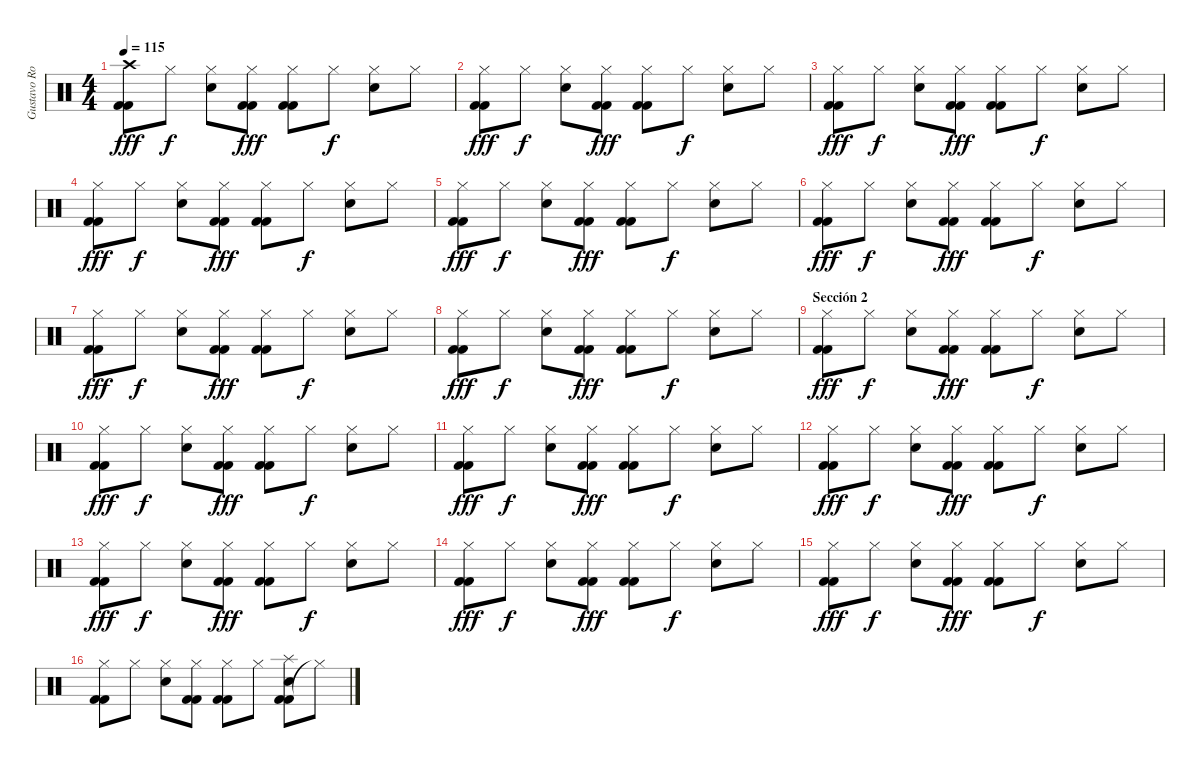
\track ("Gustavo Rowek" "Gustavo Ro") {instrument percussion}
\staff {score}
\articulation defaults
\ts (4 4)
\section ("" "")
\tempo 115
\clef neutral
\ks c
("Kick (hit) 2" "Kick (hit) 2" "Crash high (hit)").8{dy fff} "Hi-Hat (closed)".8{dy f} ("Snare (hit) 2" "Hi-Hat (closed)").8 ("Kick (hit) 2" "Kick (hit) 2" "Hi-Hat (closed)").8{dy fff} ("Kick (hit) 2" "Kick (hit) 2" "Hi-Hat (closed)").8 "Hi-Hat (closed)".8{dy f} ("Snare (hit) 2" "Hi-Hat (closed)").8 "Hi-Hat (closed)".8 |
("Kick (hit) 2" "Kick (hit) 2" "Hi-Hat (closed)").8{dy fff} "Hi-Hat (closed)".8{dy f} ("Snare (hit) 2" "Hi-Hat (closed)").8 ("Kick (hit) 2" "Kick (hit) 2" "Hi-Hat (closed)").8{dy fff} ("Kick (hit) 2" "Kick (hit) 2" "Hi-Hat (closed)").8 "Hi-Hat (closed)".8{dy f} ("Snare (hit) 2" "Hi-Hat (closed)").8 "Hi-Hat (closed)".8 |
("Kick (hit) 2" "Kick (hit) 2" "Hi-Hat (closed)").8{dy fff} "Hi-Hat (closed)".8{dy f} ("Snare (hit) 2" "Hi-Hat (closed)").8 ("Kick (hit) 2" "Kick (hit) 2" "Hi-Hat (closed)").8{dy fff} ("Kick (hit) 2" "Kick (hit) 2" "Hi-Hat (closed)").8 "Hi-Hat (closed)".8{dy f} ("Snare (hit) 2" "Hi-Hat (closed)").8 "Hi-Hat (closed)".8 |
("Kick (hit) 2" "Kick (hit) 2" "Hi-Hat (closed)").8{dy fff} "Hi-Hat (closed)".8{dy f} ("Snare (hit) 2" "Hi-Hat (closed)").8 ("Kick (hit) 2" "Kick (hit) 2" "Hi-Hat (closed)").8{dy fff} ("Kick (hit) 2" "Kick (hit) 2" "Hi-Hat (closed)").8 "Hi-Hat (closed)".8{dy f} ("Snare (hit) 2" "Hi-Hat (closed)").8 "Hi-Hat (closed)".8 |
("Kick (hit) 2" "Kick (hit) 2" "Hi-Hat (closed)").8{dy fff} "Hi-Hat (closed)".8{dy f} ("Snare (hit) 2" "Hi-Hat (closed)").8 ("Kick (hit) 2" "Kick (hit) 2" "Hi-Hat (closed)").8{dy fff} ("Kick (hit) 2" "Kick (hit) 2" "Hi-Hat (closed)").8 "Hi-Hat (closed)".8{dy f} ("Snare (hit) 2" "Hi-Hat (closed)").8 "Hi-Hat (closed)".8 |
("Kick (hit) 2" "Kick (hit) 2" "Hi-Hat (closed)").8{dy fff} "Hi-Hat (closed)".8{dy f} ("Snare (hit) 2" "Hi-Hat (closed)").8 ("Kick (hit) 2" "Kick (hit) 2" "Hi-Hat (closed)").8{dy fff} ("Kick (hit) 2" "Kick (hit) 2" "Hi-Hat (closed)").8 "Hi-Hat (closed)".8{dy f} ("Snare (hit) 2" "Hi-Hat (closed)").8 "Hi-Hat (closed)".8 |
("Kick (hit) 2" "Kick (hit) 2" "Hi-Hat (closed)").8{dy fff} "Hi-Hat (closed)".8{dy f} ("Snare (hit) 2" "Hi-Hat (closed)").8 ("Kick (hit) 2" "Kick (hit) 2" "Hi-Hat (closed)").8{dy fff} ("Kick (hit) 2" "Kick (hit) 2" "Hi-Hat (closed)").8 "Hi-Hat (closed)".8{dy f} ("Snare (hit) 2" "Hi-Hat (closed)").8 "Hi-Hat (closed)".8 |
("Kick (hit) 2" "Kick (hit) 2" "Hi-Hat (closed)").8{dy fff} "Hi-Hat (closed)".8{dy f} ("Snare (hit) 2" "Hi-Hat (closed)").8 ("Kick (hit) 2" "Kick (hit) 2" "Hi-Hat (closed)").8{dy fff} ("Kick (hit) 2" "Kick (hit) 2" "Hi-Hat (closed)").8 "Hi-Hat (closed)".8{dy f} ("Snare (hit) 2" "Hi-Hat (closed)").8 "Hi-Hat (closed)".8 |
\section ("" "Sección 2")
("Kick (hit) 2" "Kick (hit) 2" "Hi-Hat (closed)").8{dy fff} "Hi-Hat (closed)".8{dy f} ("Snare (hit) 2" "Hi-Hat (closed)").8 ("Kick (hit) 2" "Kick (hit) 2" "Hi-Hat (closed)").8{dy fff} ("Kick (hit) 2" "Kick (hit) 2" "Hi-Hat (closed)").8 "Hi-Hat (closed)".8{dy f} ("Snare (hit) 2" "Hi-Hat (closed)").8 "Hi-Hat (closed)".8 |
("Kick (hit) 2" "Kick (hit) 2" "Hi-Hat (closed)").8{dy fff} "Hi-Hat (closed)".8{dy f} ("Snare (hit) 2" "Hi-Hat (closed)").8 ("Kick (hit) 2" "Kick (hit) 2" "Hi-Hat (closed)").8{dy fff} ("Kick (hit) 2" "Kick (hit) 2" "Hi-Hat (closed)").8 "Hi-Hat (closed)".8{dy f} ("Snare (hit) 2" "Hi-Hat (closed)").8 "Hi-Hat (closed)".8 |
("Kick (hit) 2" "Kick (hit) 2" "Hi-Hat (closed)").8{dy fff} "Hi-Hat (closed)".8{dy f} ("Snare (hit) 2" "Hi-Hat (closed)").8 ("Kick (hit) 2" "Kick (hit) 2" "Hi-Hat (closed)").8{dy fff} ("Kick (hit) 2" "Kick (hit) 2" "Hi-Hat (closed)").8 "Hi-Hat (closed)".8{dy f} ("Snare (hit) 2" "Hi-Hat (closed)").8 "Hi-Hat (closed)".8 |
("Kick (hit) 2" "Kick (hit) 2" "Hi-Hat (closed)").8{dy fff} "Hi-Hat (closed)".8{dy f} ("Snare (hit) 2" "Hi-Hat (closed)").8 ("Kick (hit) 2" "Kick (hit) 2" "Hi-Hat (closed)").8{dy fff} ("Kick (hit) 2" "Kick (hit) 2" "Hi-Hat (closed)").8 "Hi-Hat (closed)".8{dy f} ("Snare (hit) 2" "Hi-Hat (closed)").8 "Hi-Hat (closed)".8 |
("Kick (hit) 2" "Kick (hit) 2" "Hi-Hat (closed)").8{dy fff} "Hi-Hat (closed)".8{dy f} ("Snare (hit) 2" "Hi-Hat (closed)").8 ("Kick (hit) 2" "Kick (hit) 2" "Hi-Hat (closed)").8{dy fff} ("Kick (hit) 2" "Kick (hit) 2" "Hi-Hat (closed)").8 "Hi-Hat (closed)".8{dy f} ("Snare (hit) 2" "Hi-Hat (closed)").8 "Hi-Hat (closed)".8 |
("Kick (hit) 2" "Kick (hit) 2" "Hi-Hat (closed)").8{dy fff} "Hi-Hat (closed)".8{dy f} ("Snare (hit) 2" "Hi-Hat (closed)").8 ("Kick (hit) 2" "Kick (hit) 2" "Hi-Hat (closed)").8{dy fff} ("Kick (hit) 2" "Kick (hit) 2" "Hi-Hat (closed)").8 "Hi-Hat (closed)".8{dy f} ("Snare (hit) 2" "Hi-Hat (closed)").8 "Hi-Hat (closed)".8 |
("Kick (hit) 2" "Kick (hit) 2" "Hi-Hat (closed)").8{dy fff} "Hi-Hat (closed)".8{dy f} ("Snare (hit) 2" "Hi-Hat (closed)").8 ("Kick (hit) 2" "Kick (hit) 2" "Hi-Hat (closed)").8{dy fff} ("Kick (hit) 2" "Kick (hit) 2" "Hi-Hat (closed)").8 "Hi-Hat (closed)".8{dy f} ("Snare (hit) 2" "Hi-Hat (closed)").8 "Hi-Hat (closed)".8 |
("Kick (hit) 2" "Kick (hit) 2" "Hi-Hat (closed)").8 "Hi-Hat (closed)".8 ("Snare (hit) 2" "Hi-Hat (closed)").8 ("Kick (hit) 2" "Kick (hit) 2" "Hi-Hat (closed)").8 ("Kick (hit) 2" "Kick (hit) 2" "Hi-Hat (closed)").8 "Hi-Hat (closed)".8 ("Kick (hit) 2" "Kick (hit) 2" "Snare (hit) 2" "Splash (hit)").8 "Hi-Hat (closed)"{t}.8
